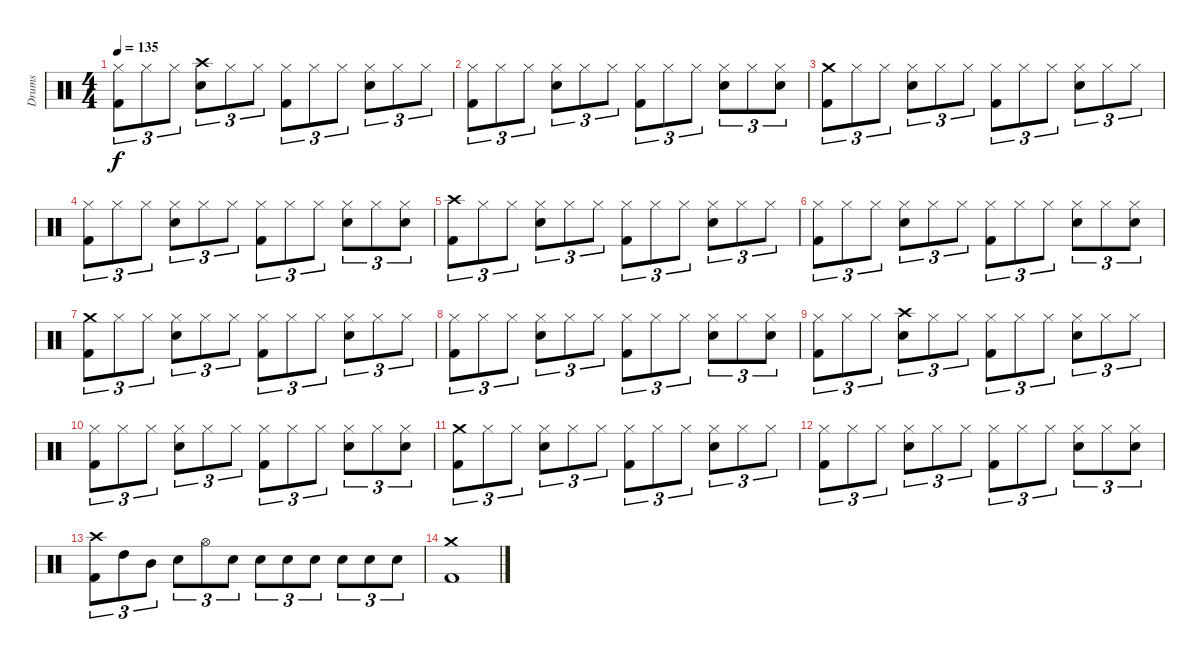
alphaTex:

\track ("Drums" "Drums") {instrument percussion}
\staff {score}
\articulation defaults
\ts (4 4)
\tempo 135
\clef neutral
\ks c
("Hi-Hat (closed)" "Kick (hit) 2").8{tu (3 2) dy f} "Hi-Hat (closed)".8{tu (3 2)} "Hi-Hat (closed)".8{tu (3 2)} ("Crash high (hit)" "Snare (hit) 2").8{tu (3 2)} "Hi-Hat (closed)".8{tu (3 2)} "Hi-Hat (closed)".8{tu (3 2)} ("Hi-Hat (closed)" "Kick (hit) 2").8{tu (3 2)} "Hi-Hat (closed)".8{tu (3 2)} "Hi-Hat (closed)".8{tu (3 2)} ("Hi-Hat (closed)" "Snare (hit) 2").8{tu (3 2)} "Hi-Hat (closed)".8{tu (3 2)} "Hi-Hat (closed)".8{tu (3 2)} |
("Hi-Hat (closed)" "Kick (hit) 2").8{tu (3 2)} "Hi-Hat (closed)".8{tu (3 2)} "Hi-Hat (closed)".8{tu (3 2)} ("Hi-Hat (closed)" "Snare (hit) 2").8{tu (3 2)} "Hi-Hat (closed)".8{tu (3 2)} "Hi-Hat (closed)".8{tu (3 2)} ("Hi-Hat (closed)" "Kick (hit) 2").8{tu (3 2)} "Hi-Hat (closed)".8{tu (3 2)} "Hi-Hat (closed)".8{tu (3 2)} ("Hi-Hat (closed)" "Snare (hit) 2").8{tu (3 2)} "Hi-Hat (closed)".8{tu (3 2)} ("Hi-Hat (closed)" "Snare (hit) 2").8{tu (3 2)} |
("Crash medium (hit)" "Kick (hit) 2").8{tu (3 2)} "Hi-Hat (closed)".8{tu (3 2)} "Hi-Hat (closed)".8{tu (3 2)} ("Hi-Hat (closed)" "Snare (hit) 2").8{tu (3 2)} "Hi-Hat (closed)".8{tu (3 2)} "Hi-Hat (closed)".8{tu (3 2)} ("Hi-Hat (closed)" "Kick (hit) 2").8{tu (3 2)} "Hi-Hat (closed)".8{tu (3 2)} "Hi-Hat (closed)".8{tu (3 2)} ("Hi-Hat (closed)" "Snare (hit) 2").8{tu (3 2)} "Hi-Hat (closed)".8{tu (3 2)} "Hi-Hat (closed)".8{tu (3 2)} |
("Hi-Hat (closed)" "Kick (hit) 2").8{tu (3 2)} "Hi-Hat (closed)".8{tu (3 2)} "Hi-Hat (closed)".8{tu (3 2)} ("Hi-Hat (closed)" "Snare (hit) 2").8{tu (3 2)} "Hi-Hat (closed)".8{tu (3 2)} "Hi-Hat (closed)".8{tu (3 2)} ("Hi-Hat (closed)" "Kick (hit) 2").8{tu (3 2)} "Hi-Hat (closed)".8{tu (3 2)} "Hi-Hat (closed)".8{tu (3 2)} ("Hi-Hat (closed)" "Snare (hit) 2").8{tu (3 2)} "Hi-Hat (closed)".8{tu (3 2)} ("Hi-Hat (closed)" "Snare (hit) 2").8{tu (3 2)} |
("Crash high (hit)" "Kick (hit) 2").8{tu (3 2)} "Hi-Hat (closed)".8{tu (3 2)} "Hi-Hat (closed)".8{tu (3 2)} ("Hi-Hat (closed)" "Snare (hit) 2").8{tu (3 2)} "Hi-Hat (closed)".8{tu (3 2)} "Hi-Hat (closed)".8{tu (3 2)} ("Hi-Hat (closed)" "Kick (hit) 2").8{tu (3 2)} "Hi-Hat (closed)".8{tu (3 2)} "Hi-Hat (closed)".8{tu (3 2)} ("Hi-Hat (closed)" "Snare (hit) 2").8{tu (3 2)} "Hi-Hat (closed)".8{tu (3 2)} "Hi-Hat (closed)".8{tu (3 2)} |
("Hi-Hat (closed)" "Kick (hit) 2").8{tu (3 2)} "Hi-Hat (closed)".8{tu (3 2)} "Hi-Hat (closed)".8{tu (3 2)} ("Hi-Hat (closed)" "Snare (hit) 2").8{tu (3 2)} "Hi-Hat (closed)".8{tu (3 2)} "Hi-Hat (closed)".8{tu (3 2)} ("Hi-Hat (closed)" "Kick (hit) 2").8{tu (3 2)} "Hi-Hat (closed)".8{tu (3 2)} "Hi-Hat (closed)".8{tu (3 2)} ("Hi-Hat (closed)" "Snare (hit) 2").8{tu (3 2)} "Hi-Hat (closed)".8{tu (3 2)} ("Hi-Hat (closed)" "Snare (hit) 2").8{tu (3 2)} |
("Crash medium (hit)" "Kick (hit) 2").8{tu (3 2)} "Hi-Hat (closed)".8{tu (3 2)} "Hi-Hat (closed)".8{tu (3 2)} ("Hi-Hat (closed)" "Snare (hit) 2").8{tu (3 2)} "Hi-Hat (closed)".8{tu (3 2)} "Hi-Hat (closed)".8{tu (3 2)} ("Hi-Hat (closed)" "Kick (hit) 2").8{tu (3 2)} "Hi-Hat (closed)".8{tu (3 2)} "Hi-Hat (closed)".8{tu (3 2)} ("Hi-Hat (closed)" "Snare (hit) 2").8{tu (3 2)} "Hi-Hat (closed)".8{tu (3 2)} "Hi-Hat (closed)".8{tu (3 2)} |
("Hi-Hat (closed)" "Kick (hit) 2").8{tu (3 2)} "Hi-Hat (closed)".8{tu (3 2)} "Hi-Hat (closed)".8{tu (3 2)} ("Hi-Hat (closed)" "Snare (hit) 2").8{tu (3 2)} "Hi-Hat (closed)".8{tu (3 2)} "Hi-Hat (closed)".8{tu (3 2)} ("Hi-Hat (closed)" "Kick (hit) 2").8{tu (3 2)} "Hi-Hat (closed)".8{tu (3 2)} "Hi-Hat (closed)".8{tu (3 2)} ("Hi-Hat (closed)" "Snare (hit) 2").8{tu (3 2)} "Hi-Hat (closed)".8{tu (3 2)} ("Hi-Hat (closed)" "Snare (hit) 2").8{tu (3 2)} |
("Hi-Hat (closed)" "Kick (hit) 2").8{tu (3 2)} "Hi-Hat (closed)".8{tu (3 2)} "Hi-Hat (closed)".8{tu (3 2)} ("Crash high (hit)" "Snare (hit) 2").8{tu (3 2)} "Hi-Hat (closed)".8{tu (3 2)} "Hi-Hat (closed)".8{tu (3 2)} ("Hi-Hat (closed)" "Kick (hit) 2").8{tu (3 2)} "Hi-Hat (closed)".8{tu (3 2)} "Hi-Hat (closed)".8{tu (3 2)} ("Hi-Hat (closed)" "Snare (hit) 2").8{tu (3 2)} "Hi-Hat (closed)".8{tu (3 2)} "Hi-Hat (closed)".8{tu (3 2)} |
("Hi-Hat (closed)" "Kick (hit) 2").8{tu (3 2)} "Hi-Hat (closed)".8{tu (3 2)} "Hi-Hat (closed)".8{tu (3 2)} ("Hi-Hat (closed)" "Snare (hit) 2").8{tu (3 2)} "Hi-Hat (closed)".8{tu (3 2)} "Hi-Hat (closed)".8{tu (3 2)} ("Hi-Hat (closed)" "Kick (hit) 2").8{tu (3 2)} "Hi-Hat (closed)".8{tu (3 2)} "Hi-Hat (closed)".8{tu (3 2)} ("Hi-Hat (closed)" "Snare (hit) 2").8{tu (3 2)} "Hi-Hat (closed)".8{tu (3 2)} ("Hi-Hat (closed)" "Snare (hit) 2").8{tu (3 2)} |
("Crash medium (hit)" "Kick (hit) 2").8{tu (3 2)} "Hi-Hat (closed)".8{tu (3 2)} "Hi-Hat (closed)".8{tu (3 2)} ("Hi-Hat (closed)" "Snare (hit) 2").8{tu (3 2)} "Hi-Hat (closed)".8{tu (3 2)} "Hi-Hat (closed)".8{tu (3 2)} ("Hi-Hat (closed)" "Kick (hit) 2").8{tu (3 2)} "Hi-Hat (closed)".8{tu (3 2)} "Hi-Hat (closed)".8{tu (3 2)} ("Hi-Hat (closed)" "Snare (hit) 2").8{tu (3 2)} "Hi-Hat (closed)".8{tu (3 2)} "Hi-Hat (closed)".8{tu (3 2)} |
("Hi-Hat (closed)" "Kick (hit) 2").8{tu (3 2)} "Hi-Hat (closed)".8{tu (3 2)} "Hi-Hat (closed)".8{tu (3 2)} ("Hi-Hat (closed)" "Snare (hit) 2").8{tu (3 2)} "Hi-Hat (closed)".8{tu (3 2)} "Hi-Hat (closed)".8{tu (3 2)} ("Hi-Hat (closed)" "Kick (hit) 2").8{tu (3 2)} "Hi-Hat (closed)".8{tu (3 2)} "Hi-Hat (closed)".8{tu (3 2)} ("Hi-Hat (closed)" "Snare (hit) 2").8{tu (3 2)} "Hi-Hat (closed)".8{tu (3 2)} ("Hi-Hat (closed)" "Snare (hit) 2").8{tu (3 2)} |
("Crash high (hit)" "Kick (hit) 2").8{tu (3 2)} "High Tom (hit)".8{tu (3 2)} "Mid Tom (hit)".8{tu (3 2)} "Snare (hit) 2".8{tu (3 2)} "Hi-Hat (open)".8{tu (3 2)} "Snare (hit) 2".8{tu (3 2)} "Snare (hit) 2".8{tu (3 2)} "Snare (hit) 2".8{tu (3 2)} "Snare (hit) 2".8{tu (3 2)} "Snare (hit) 2".8{tu (3 2)} "Snare (hit) 2".8{tu (3 2)} "Snare (hit) 2".8{tu (3 2)} |
("Crash medium (hit)" "Kick (hit) 2").1
